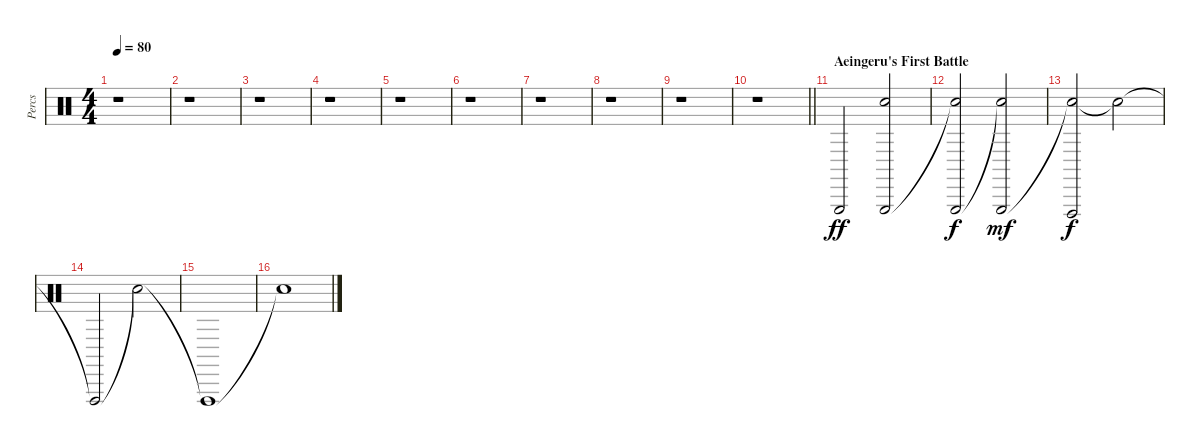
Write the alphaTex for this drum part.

\track ("Percs" "Percs") {instrument percussion}
\staff {score}
\articulation defaults
\ts (4 4)
\tempo 80
\clef neutral
\ks c
r.1{dy f} |
r.1 |
r.1 |
r.1 |
r.1 |
r.1 |
r.1 |
r.1 |
r.1 |
\barLineRight lightlight
r.1 |
\section ("" "Aeingeru's First Battle")
"Triangle (hit)".2{dy ff} ("Triangle (hit)" "Snare (hit)").2 |
("Snare (hit)"{t} "Triangle (hit)").2{dy f} ("Triangle (hit)" "Snare (hit)"{t}).2{dy mf} |
("Snare (hit)"{t} "Vibraslap (hit)").2{dy f} "Snare (hit)"{t}.2 |
"Vibraslap (hit)"{t}.2 "Snare (hit)"{t}.2 |
"Vibraslap (hit)"{t}.1 |
"Snare (hit)"{t}.1
